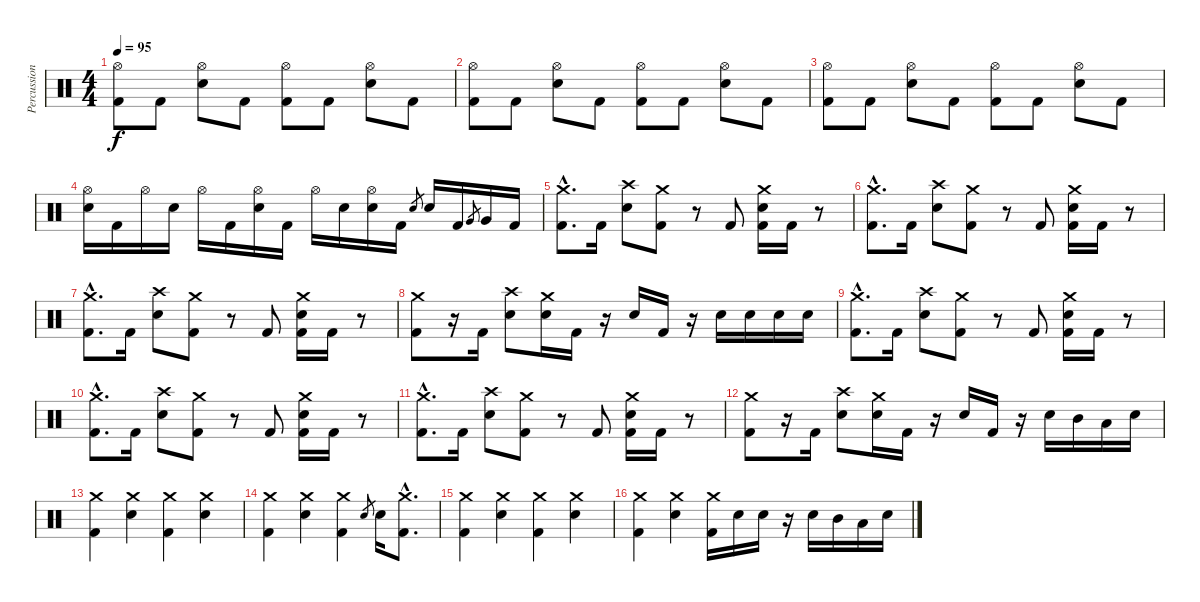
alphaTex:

\track ("Percussion" "Percussion") {instrument percussion}
\staff {score}
\articulation defaults
\ts (4 4)
\tempo 95
\clef neutral
\ks c
("Hi-Hat (open)" "Kick (hit) 2").8{dy f} "Kick (hit) 2".8 ("Hi-Hat (open)" "Electric Snare (hit)").8 "Kick (hit) 2".8 ("Hi-Hat (open)" "Kick (hit) 2").8 "Kick (hit) 2".8 ("Hi-Hat (open)" "Electric Snare (hit)").8 "Kick (hit) 2".8 |
("Hi-Hat (open)" "Kick (hit) 2").8 "Kick (hit) 2".8 ("Hi-Hat (open)" "Electric Snare (hit)").8 "Kick (hit) 2".8 ("Hi-Hat (open)" "Kick (hit) 2").8 "Kick (hit) 2".8 ("Hi-Hat (open)" "Electric Snare (hit)").8 "Kick (hit) 2".8 |
("Hi-Hat (open)" "Kick (hit) 2").8 "Kick (hit) 2".8 ("Hi-Hat (open)" "Electric Snare (hit)").8 "Kick (hit) 2".8 ("Hi-Hat (open)" "Kick (hit) 2").8 "Kick (hit) 2".8 ("Hi-Hat (open)" "Electric Snare (hit)").8 "Kick (hit) 2".8 |
("Hi-Hat (open)" "Electric Snare (hit)").16 "Kick (hit) 2".16 "Hi-Hat (open)".16 "Electric Snare (hit)".16 "Hi-Hat (open)".16 "Kick (hit) 2".16 ("Hi-Hat (open)" "Electric Snare (hit)").16 "Kick (hit) 2".16 "Hi-Hat (open)".16 "Electric Snare (hit)".16 ("Hi-Hat (open)" "Electric Snare (hit)").16 "Kick (hit) 2".16 "Electric Snare (hit)".8{gr} "Electric Snare (hit)".16 "Kick (hit) 2".16 "Very Low Tom (hit)".8{gr} "Very Low Tom (hit)".16 "Kick (hit) 2".16 |
("Crash medium (hit)"{hac} "Kick (hit) 2"{hac}).8{d} "Kick (hit) 2".16 ("Crash high (hit)" "Electric Snare (hit)").8 ("Crash medium (hit)" "Kick (hit) 2").8 r.8 "Kick (hit) 2".8 ("Crash medium (hit)" "Electric Snare (hit)" "Kick (hit) 2").16 "Kick (hit) 2".16 r.8 |
("Crash medium (hit)"{hac} "Kick (hit) 2"{hac}).8{d} "Kick (hit) 2".16 ("Crash high (hit)" "Electric Snare (hit)").8 ("Crash medium (hit)" "Kick (hit) 2").8 r.8 "Kick (hit) 2".8 ("Crash medium (hit)" "Electric Snare (hit)" "Kick (hit) 2").16 "Kick (hit) 2".16 r.8 |
("Crash medium (hit)"{hac} "Kick (hit) 2"{hac}).8{d} "Kick (hit) 2".16 ("Crash high (hit)" "Electric Snare (hit)").8 ("Crash medium (hit)" "Kick (hit) 2").8 r.8 "Kick (hit) 2".8 ("Crash medium (hit)" "Electric Snare (hit)" "Kick (hit) 2").16 "Kick (hit) 2".16 r.8 |
("Crash medium (hit)" "Kick (hit) 2").8 r.16 "Kick (hit) 2".16 ("Crash high (hit)" "Electric Snare (hit)").8 ("Crash medium (hit)" "Electric Snare (hit)").16 "Kick (hit) 2".16 r.16 "Electric Snare (hit)".16 "Kick (hit) 2".16 r.16 "Electric Snare (hit)".16 "Electric Snare (hit)".16 "Electric Snare (hit)".16 "Electric Snare (hit)".16 |
("Crash medium (hit)"{hac} "Kick (hit) 2"{hac}).8{d} "Kick (hit) 2".16 ("Crash high (hit)" "Electric Snare (hit)").8 ("Crash medium (hit)" "Kick (hit) 2").8 r.8 "Kick (hit) 2".8 ("Crash medium (hit)" "Electric Snare (hit)" "Kick (hit) 2").16 "Kick (hit) 2".16 r.8 |
("Crash medium (hit)"{hac} "Kick (hit) 2"{hac}).8{d} "Kick (hit) 2".16 ("Crash high (hit)" "Electric Snare (hit)").8 ("Crash medium (hit)" "Kick (hit) 2").8 r.8 "Kick (hit) 2".8 ("Crash medium (hit)" "Electric Snare (hit)" "Kick (hit) 2").16 "Kick (hit) 2".16 r.8 |
("Crash medium (hit)"{hac} "Kick (hit) 2"{hac}).8{d} "Kick (hit) 2".16 ("Crash high (hit)" "Electric Snare (hit)").8 ("Crash medium (hit)" "Kick (hit) 2").8 r.8 "Kick (hit) 2".8 ("Crash medium (hit)" "Electric Snare (hit)" "Kick (hit) 2").16 "Kick (hit) 2".16 r.8 |
("Crash medium (hit)" "Kick (hit) 2").8 r.16 "Kick (hit) 2".16 ("Crash high (hit)" "Electric Snare (hit)").8 ("Crash medium (hit)" "Electric Snare (hit)").16 "Kick (hit) 2".16 r.16 "Electric Snare (hit)".16 "Kick (hit) 2".16 r.16 "Electric Snare (hit)".16 "Mid Tom (hit)".16 "Low Tom (hit)".16 "Electric Snare (hit)".16 |
("Crash medium (hit)" "Kick (hit) 2").4 ("Crash medium (hit)" "Electric Snare (hit)").4 ("Crash medium (hit)" "Kick (hit) 2").4 ("Crash medium (hit)" "Electric Snare (hit)").4 |
("Crash medium (hit)" "Kick (hit) 2").4 ("Crash medium (hit)" "Electric Snare (hit)").4 ("Crash medium (hit)" "Kick (hit) 2").4 "Electric Snare (hit)".8{gr} "Electric Snare (hit)".16 ("Crash medium (hit)"{hac} "Kick (hit) 2"{hac}).8{d} |
("Crash medium (hit)" "Kick (hit) 2").4 ("Crash medium (hit)" "Electric Snare (hit)").4 ("Crash medium (hit)" "Kick (hit) 2").4 ("Crash medium (hit)" "Electric Snare (hit)").4 |
("Crash medium (hit)" "Kick (hit) 2").4 ("Crash medium (hit)" "Electric Snare (hit)").4 ("Crash medium (hit)" "Kick (hit) 2").16 "Electric Snare (hit)".16 "Electric Snare (hit)".16 r.16 "Electric Snare (hit)".16 "Mid Tom (hit)".16 "Low Tom (hit)".16 "Electric Snare (hit)".16
